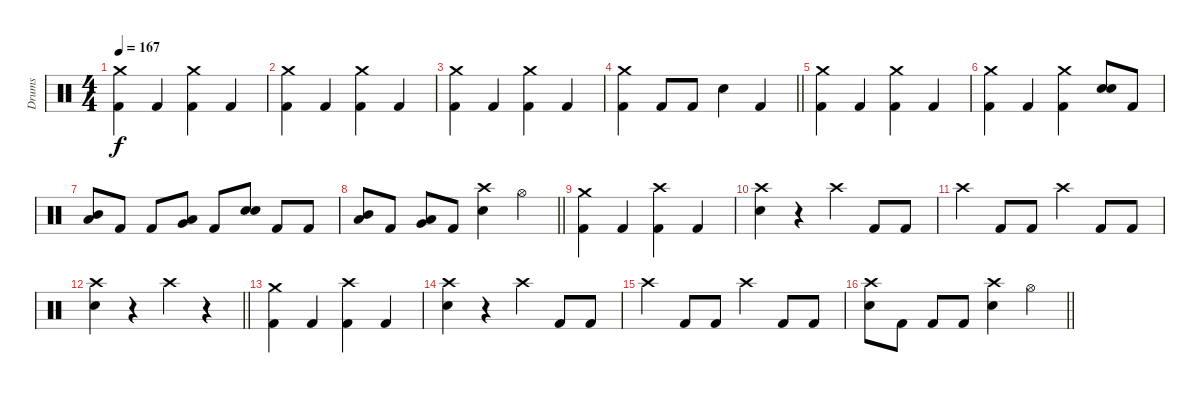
\track ("Drums" "Drums") {instrument percussion}
\staff {score}
\articulation defaults
\ts (4 4)
\section ("" "")
\tempo 167
\clef neutral
\ks c
("Crash medium (hit)" "Kick (hit) 2").4{dy f} "Kick (hit) 2".4 ("Crash medium (hit)" "Kick (hit) 2").4 "Kick (hit) 2".4 |
("Crash medium (hit)" "Kick (hit) 2").4 "Kick (hit) 2".4 ("Crash medium (hit)" "Kick (hit) 2").4 "Kick (hit) 2".4 |
("Crash medium (hit)" "Kick (hit) 2").4 "Kick (hit) 2".4 ("Crash medium (hit)" "Kick (hit) 2").4 "Kick (hit) 2".4 |
\barLineRight lightlight
("Crash medium (hit)" "Kick (hit) 2").4 "Kick (hit) 2".8 "Kick (hit) 2".8 "Electric Snare (hit)".4 "Kick (hit) 2".4 |
("Crash medium (hit)" "Kick (hit) 2").4 "Kick (hit) 2".4 ("Crash medium (hit)" "Kick (hit) 2").4 "Kick (hit) 2".4 |
("Crash medium (hit)" "Kick (hit) 2").4 "Kick (hit) 2".4 ("Crash medium (hit)" "Kick (hit) 2").4 ("Electric Snare (hit)" "Electric Snare (hit)").8 "Kick (hit) 2".8 |
("Mid Tom (hit)" "Low Tom (hit)").8 "Kick (hit) 2".8 "Kick (hit) 2".8 ("Low Tom (hit)" "Very Low Tom (hit)").8 "Kick (hit) 2".8 ("Electric Snare (hit)" "Electric Snare (hit)").8 "Kick (hit) 2".8 "Kick (hit) 2".8 |
\barLineRight lightlight
("Mid Tom (hit)" "Low Tom (hit)").8 "Kick (hit) 2".8 ("Low Tom (hit)" "Very Low Tom (hit)").8 "Kick (hit) 2".8 ("Crash high (hit)" "Electric Snare (hit)").4 "Hi-Hat (open)".4 |
\section ("" "")
("Crash medium (hit)" "Kick (hit) 2").4 "Kick (hit) 2".4 ("Crash high (hit)" "Kick (hit) 2").4 "Kick (hit) 2".4 |
("Crash high (hit)" "Electric Snare (hit)").4 r.4 "Crash high (hit)".4 "Kick (hit) 2".8 "Kick (hit) 2".8 |
"Crash high (hit)".4 "Kick (hit) 2".8 "Kick (hit) 2".8 "Crash high (hit)".4 "Kick (hit) 2".8 "Kick (hit) 2".8 |
\barLineRight lightlight
("Crash high (hit)" "Electric Snare (hit)").4 r.4 "Crash high (hit)".4 r.4 |
("Crash medium (hit)" "Kick (hit) 2").4 "Kick (hit) 2".4 ("Crash high (hit)" "Kick (hit) 2").4 "Kick (hit) 2".4 |
("Crash high (hit)" "Electric Snare (hit)").4 r.4 "Crash high (hit)".4 "Kick (hit) 2".8 "Kick (hit) 2".8 |
"Crash high (hit)".4 "Kick (hit) 2".8 "Kick (hit) 2".8 "Crash high (hit)".4 "Kick (hit) 2".8 "Kick (hit) 2".8 |
\barLineRight lightlight
("Crash high (hit)" "Electric Snare (hit)").8 "Kick (hit) 2".8 "Kick (hit) 2".8 "Kick (hit) 2".8 ("Crash high (hit)" "Electric Snare (hit)").4 "Hi-Hat (open)".4
